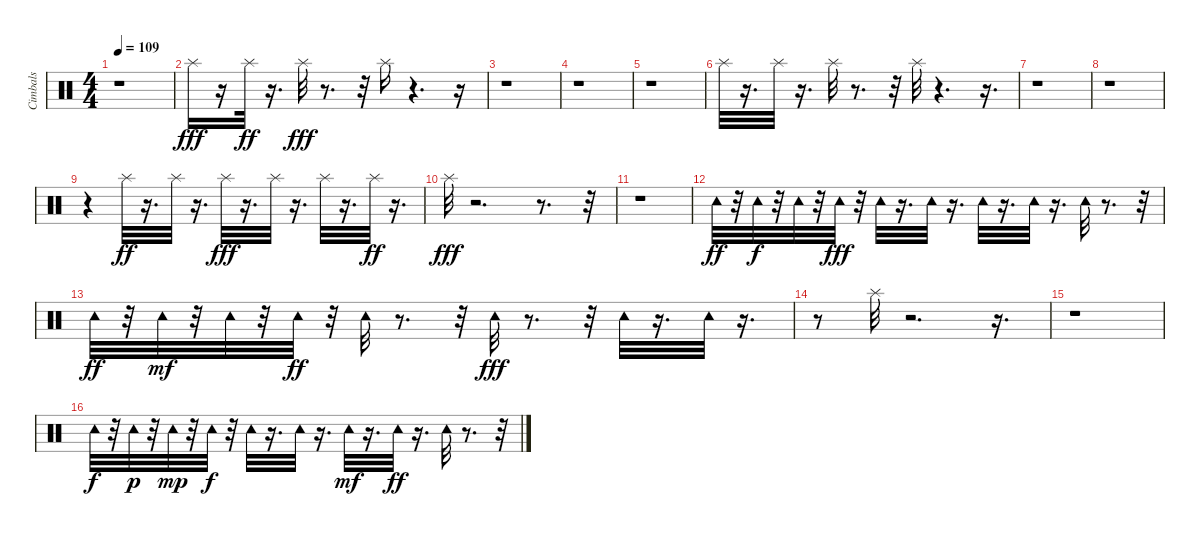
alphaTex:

\track ("Cimbals" "Cimbals") {instrument percussion}
\staff {score}
\articulation defaults
\ts (4 4)
\tempo 109
\clef neutral
\ks c
r.1{dy fff} |
"Splash (hit)".16 r.16 "Splash (hit)".32{dy ff} r.16{d} "Splash (hit)".32{dy fff} r.8{d} r.32 "Splash (hit)".16 r.4{d} r.16 |
r.1 |
r.1 |
r.1 |
"Splash (hit)".32 r.16{d} "Splash (hit)".32 r.16{d} "Splash (hit)".32 r.8{d} r.32 "Splash (hit)".32 r.4{d} r.16{d} |
r.1 |
r.1 |
r.4 "Splash (hit)".32{dy ff} r.16{d} "Splash (hit)".32 r.16{d} "Splash (hit)".32{dy fff} r.16{d} "Splash (hit)".32 r.16{d} "Splash (hit)".32 r.16{d} "Splash (hit)".32{dy ff} r.16{d} |
"Splash (hit)".32{dy fff} r.2{d} r.8{d} r.32 |
r.1 |
"Tambourine (hit)".32{dy ff} r.32 "Tambourine (hit)".32{dy f} r.32 "Tambourine (hit)".32 r.32 "Tambourine (hit)".32{dy fff} r.32 "Tambourine (hit)".32 r.16{d} "Tambourine (hit)".32 r.16{d} "Tambourine (hit)".32 r.16{d} "Tambourine (hit)".32 r.16{d} "Tambourine (hit)".32 r.8{d} r.32 |
"Tambourine (hit)".32{dy ff} r.32 "Tambourine (hit)".32{dy mf} r.32 "Tambourine (hit)".32 r.32 "Tambourine (hit)".32{dy ff} r.32 "Tambourine (hit)".32 r.8{d} r.32 "Tambourine (hit)".32{dy fff} r.8{d} r.32 "Tambourine (hit)".32 r.16{d} "Tambourine (hit)".32 r.16{d} |
r.8 "Splash (hit)".32 r.2{d} r.16{d} |
r.1 |
"Tambourine (hit)".32{dy f} r.32 "Tambourine (hit)".32{dy p} r.32 "Tambourine (hit)".32{dy mp} r.32 "Tambourine (hit)".32{dy f} r.32 "Tambourine (hit)".32 r.16{d} "Tambourine (hit)".32 r.16{d} "Tambourine (hit)".32{dy mf} r.16{d} "Tambourine (hit)".32{dy ff} r.16{d} "Tambourine (hit)".32 r.8{d} r.32
